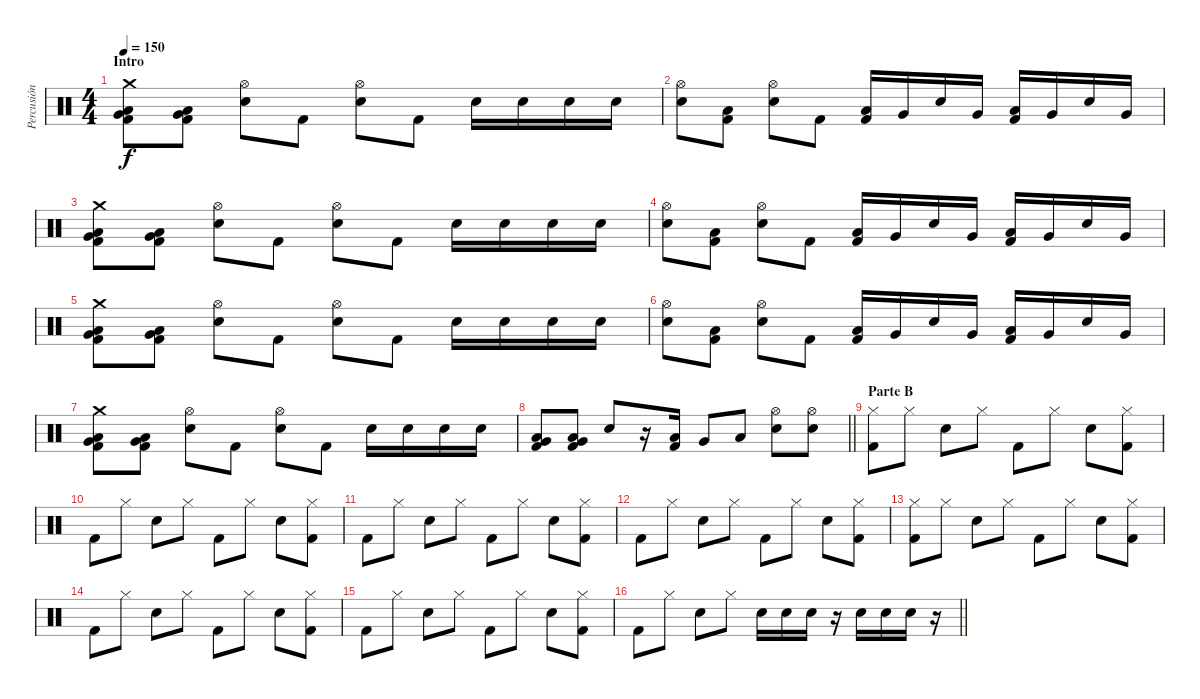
\track ("Percusión" "Percusión") {instrument percussion}
\staff {score}
\articulation defaults
\ts (4 4)
\section ("" "Intro")
\tempo 150
\clef neutral
\ks c
("Crash medium (hit)" "Kick (hit) 2" "Low Floor Tom (hit)" "Very Low Tom (hit)").8{dy f} ("Kick (hit) 2" "Low Floor Tom (hit)" "Very Low Tom (hit)").8 ("Hi-Hat (open)" "Electric Snare (hit)").8 "Kick (hit) 2".8 ("Hi-Hat (open)" "Electric Snare (hit)").8 "Kick (hit) 2".8 "Electric Snare (hit)".16 "Electric Snare (hit)".16 "Electric Snare (hit)".16 "Electric Snare (hit)".16 |
("Hi-Hat (open)" "Electric Snare (hit)").8 ("Low Floor Tom (hit)" "Kick (hit) 2").8 ("Hi-Hat (open)" "Electric Snare (hit)").8 "Kick (hit) 2".8 ("Low Floor Tom (hit)" "Kick (hit) 2").16 "Very Low Tom (hit)".16 "Electric Snare (hit)".16 "Very Low Tom (hit)".16 ("Low Floor Tom (hit)" "Kick (hit) 2").16 "Very Low Tom (hit)".16 "Electric Snare (hit)".16 "Very Low Tom (hit)".16 |
("Crash medium (hit)" "Kick (hit) 2" "Low Floor Tom (hit)" "Very Low Tom (hit)").8 ("Kick (hit) 2" "Low Floor Tom (hit)" "Very Low Tom (hit)").8 ("Hi-Hat (open)" "Electric Snare (hit)").8 "Kick (hit) 2".8 ("Hi-Hat (open)" "Electric Snare (hit)").8 "Kick (hit) 2".8 "Electric Snare (hit)".16 "Electric Snare (hit)".16 "Electric Snare (hit)".16 "Electric Snare (hit)".16 |
("Hi-Hat (open)" "Electric Snare (hit)").8 ("Low Floor Tom (hit)" "Kick (hit) 2").8 ("Hi-Hat (open)" "Electric Snare (hit)").8 "Kick (hit) 2".8 ("Low Floor Tom (hit)" "Kick (hit) 2").16 "Very Low Tom (hit)".16 "Electric Snare (hit)".16 "Very Low Tom (hit)".16 ("Low Floor Tom (hit)" "Kick (hit) 2").16 "Very Low Tom (hit)".16 "Electric Snare (hit)".16 "Very Low Tom (hit)".16 |
("Crash medium (hit)" "Kick (hit) 2" "Low Floor Tom (hit)" "Very Low Tom (hit)").8 ("Kick (hit) 2" "Low Floor Tom (hit)" "Very Low Tom (hit)").8 ("Hi-Hat (open)" "Electric Snare (hit)").8 "Kick (hit) 2".8 ("Hi-Hat (open)" "Electric Snare (hit)").8 "Kick (hit) 2".8 "Electric Snare (hit)".16 "Electric Snare (hit)".16 "Electric Snare (hit)".16 "Electric Snare (hit)".16 |
("Hi-Hat (open)" "Electric Snare (hit)").8 ("Low Floor Tom (hit)" "Kick (hit) 2").8 ("Hi-Hat (open)" "Electric Snare (hit)").8 "Kick (hit) 2".8 ("Low Floor Tom (hit)" "Kick (hit) 2").16 "Very Low Tom (hit)".16 "Electric Snare (hit)".16 "Very Low Tom (hit)".16 ("Low Floor Tom (hit)" "Kick (hit) 2").16 "Very Low Tom (hit)".16 "Electric Snare (hit)".16 "Very Low Tom (hit)".16 |
("Crash medium (hit)" "Kick (hit) 2" "Low Floor Tom (hit)" "Very Low Tom (hit)").8 ("Kick (hit) 2" "Low Floor Tom (hit)" "Very Low Tom (hit)").8 ("Hi-Hat (open)" "Electric Snare (hit)").8 "Kick (hit) 2".8 ("Hi-Hat (open)" "Electric Snare (hit)").8 "Kick (hit) 2".8 "Electric Snare (hit)".16 "Electric Snare (hit)".16 "Electric Snare (hit)".16 "Electric Snare (hit)".16 |
\barLineRight lightlight
("Kick (hit) 2" "Low Floor Tom (hit)" "Very Low Tom (hit)").8 ("Kick (hit) 2" "Low Floor Tom (hit)" "Very Low Tom (hit)").8 "Electric Snare (hit)".8 r.16 ("Low Floor Tom (hit)" "Kick (hit) 2").16 "Very Low Tom (hit)".8 "Low Floor Tom (hit)".8 ("Hi-Hat (open)" "Electric Snare (hit)").8 ("Hi-Hat (open)" "Electric Snare (hit)").8 |
\section ("" "Parte B")
("Hi-Hat (closed)" "Kick (hit) 2").8 "Hi-Hat (closed)".8 "Electric Snare (hit)".8 "Hi-Hat (closed)".8 "Kick (hit) 2".8 "Hi-Hat (closed)".8 "Electric Snare (hit)".8 ("Hi-Hat (closed)" "Kick (hit) 2").8 |
"Kick (hit) 2".8 "Hi-Hat (closed)".8 "Electric Snare (hit)".8 "Hi-Hat (closed)".8 "Kick (hit) 2".8 "Hi-Hat (closed)".8 "Electric Snare (hit)".8 ("Hi-Hat (closed)" "Kick (hit) 2").8 |
"Kick (hit) 2".8 "Hi-Hat (closed)".8 "Electric Snare (hit)".8 "Hi-Hat (closed)".8 "Kick (hit) 2".8 "Hi-Hat (closed)".8 "Electric Snare (hit)".8 ("Hi-Hat (closed)" "Kick (hit) 2").8 |
"Kick (hit) 2".8 "Hi-Hat (closed)".8 "Electric Snare (hit)".8 "Hi-Hat (closed)".8 "Kick (hit) 2".8 "Hi-Hat (closed)".8 "Electric Snare (hit)".8 ("Hi-Hat (closed)" "Kick (hit) 2").8 |
("Hi-Hat (closed)" "Kick (hit) 2").8 "Hi-Hat (closed)".8 "Electric Snare (hit)".8 "Hi-Hat (closed)".8 "Kick (hit) 2".8 "Hi-Hat (closed)".8 "Electric Snare (hit)".8 ("Hi-Hat (closed)" "Kick (hit) 2").8 |
"Kick (hit) 2".8 "Hi-Hat (closed)".8 "Electric Snare (hit)".8 "Hi-Hat (closed)".8 "Kick (hit) 2".8 "Hi-Hat (closed)".8 "Electric Snare (hit)".8 ("Hi-Hat (closed)" "Kick (hit) 2").8 |
"Kick (hit) 2".8 "Hi-Hat (closed)".8 "Electric Snare (hit)".8 "Hi-Hat (closed)".8 "Kick (hit) 2".8 "Hi-Hat (closed)".8 "Electric Snare (hit)".8 ("Hi-Hat (closed)" "Kick (hit) 2").8 |
\barLineRight lightlight "Kick (hit) 2".8 "Hi-Hat (closed)".8 "Electric Snare (hit)".8 "Hi-Hat (closed)".8 "Electric Snare (hit)".16 "Electric Snare (hit)".16 "Electric Snare (hit)".16
r.16 "Electric Snare (hit)".16 "Electric Snare (hit)".16 "Electric Snare (hit)".16 r.16
